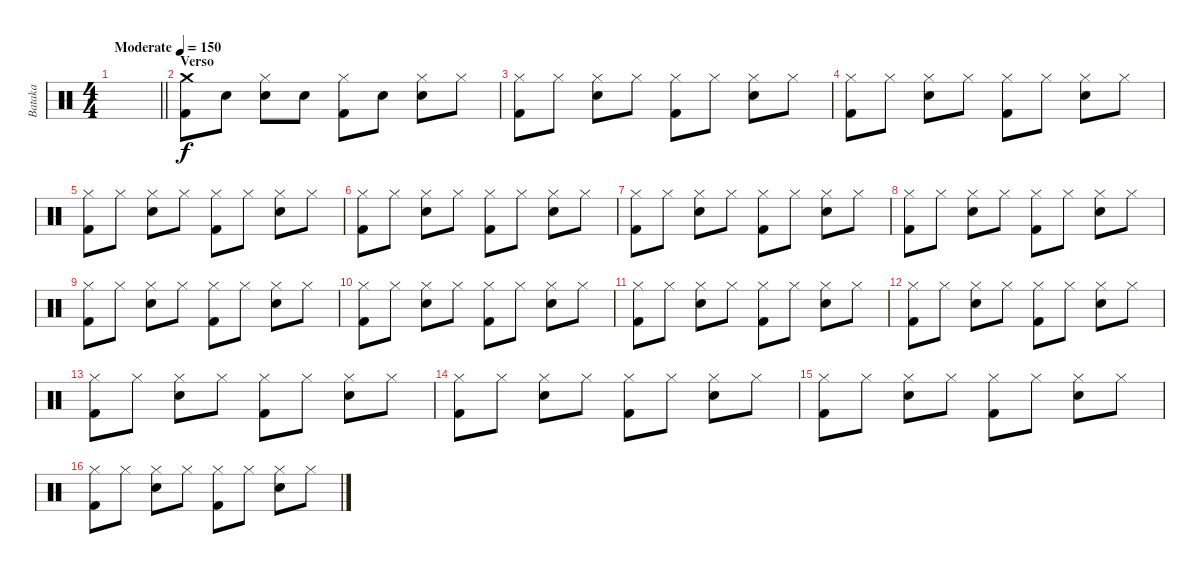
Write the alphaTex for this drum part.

\track ("Bataka" "Bataka") {instrument percussion}
\staff {score}
\articulation defaults
\ts (4 4)
\tempo (150 "Moderate")
\clef neutral
\barLineRight lightlight
\ks c
|
\section ("" "Verso")
("Crash medium (hit)" "Kick (hit) 2").8 "Snare (hit)".8 ("Hi-Hat (closed)" "Snare (hit) 2").8 "Snare (hit)".8 ("Hi-Hat (closed)" "Kick (hit) 2").8 "Snare (hit)".8 ("Hi-Hat (closed)" "Snare (hit) 2").8 "Hi-Hat (closed)".8 |
("Hi-Hat (closed)" "Kick (hit) 2").8 "Hi-Hat (closed)".8 ("Hi-Hat (closed)" "Snare (hit) 2").8 "Hi-Hat (closed)".8 ("Hi-Hat (closed)" "Kick (hit) 2").8 "Hi-Hat (closed)".8 ("Hi-Hat (closed)" "Snare (hit) 2").8 "Hi-Hat (closed)".8 |
("Hi-Hat (closed)" "Kick (hit) 2").8 "Hi-Hat (closed)".8 ("Hi-Hat (closed)" "Snare (hit) 2").8 "Hi-Hat (closed)".8 ("Hi-Hat (closed)" "Kick (hit) 2").8 "Hi-Hat (closed)".8 ("Hi-Hat (closed)" "Snare (hit) 2").8 "Hi-Hat (closed)".8 |
("Hi-Hat (closed)" "Kick (hit) 2").8 "Hi-Hat (closed)".8 ("Hi-Hat (closed)" "Snare (hit) 2").8 "Hi-Hat (closed)".8 ("Hi-Hat (closed)" "Kick (hit) 2").8 "Hi-Hat (closed)".8 ("Hi-Hat (closed)" "Snare (hit) 2").8 "Hi-Hat (closed)".8 |
("Hi-Hat (closed)" "Kick (hit) 2").8 "Hi-Hat (closed)".8 ("Hi-Hat (closed)" "Snare (hit) 2").8 "Hi-Hat (closed)".8 ("Hi-Hat (closed)" "Kick (hit) 2").8 "Hi-Hat (closed)".8 ("Hi-Hat (closed)" "Snare (hit) 2").8 "Hi-Hat (closed)".8 |
("Hi-Hat (closed)" "Kick (hit) 2").8 "Hi-Hat (closed)".8 ("Hi-Hat (closed)" "Snare (hit) 2").8 "Hi-Hat (closed)".8 ("Hi-Hat (closed)" "Kick (hit) 2").8 "Hi-Hat (closed)".8 ("Hi-Hat (closed)" "Snare (hit) 2").8 "Hi-Hat (closed)".8 |
("Hi-Hat (closed)" "Kick (hit) 2").8 "Hi-Hat (closed)".8 ("Hi-Hat (closed)" "Snare (hit) 2").8 "Hi-Hat (closed)".8 ("Hi-Hat (closed)" "Kick (hit) 2").8 "Hi-Hat (closed)".8 ("Hi-Hat (closed)" "Snare (hit) 2").8 "Hi-Hat (closed)".8 |
("Hi-Hat (closed)" "Kick (hit) 2").8 "Hi-Hat (closed)".8 ("Hi-Hat (closed)" "Snare (hit) 2").8 "Hi-Hat (closed)".8 ("Hi-Hat (closed)" "Kick (hit) 2").8 "Hi-Hat (closed)".8 ("Hi-Hat (closed)" "Snare (hit) 2").8 "Hi-Hat (closed)".8 |
("Hi-Hat (closed)" "Kick (hit) 2").8 "Hi-Hat (closed)".8 ("Hi-Hat (closed)" "Snare (hit) 2").8 "Hi-Hat (closed)".8 ("Hi-Hat (closed)" "Kick (hit) 2").8 "Hi-Hat (closed)".8 ("Hi-Hat (closed)" "Snare (hit) 2").8 "Hi-Hat (closed)".8 |
("Hi-Hat (closed)" "Kick (hit) 2").8 "Hi-Hat (closed)".8 ("Hi-Hat (closed)" "Snare (hit) 2").8 "Hi-Hat (closed)".8 ("Hi-Hat (closed)" "Kick (hit) 2").8 "Hi-Hat (closed)".8 ("Hi-Hat (closed)" "Snare (hit) 2").8 "Hi-Hat (closed)".8 |
("Hi-Hat (closed)" "Kick (hit) 2").8 "Hi-Hat (closed)".8 ("Hi-Hat (closed)" "Snare (hit) 2").8 "Hi-Hat (closed)".8 ("Hi-Hat (closed)" "Kick (hit) 2").8 "Hi-Hat (closed)".8 ("Hi-Hat (closed)" "Snare (hit) 2").8 "Hi-Hat (closed)".8 |
("Hi-Hat (closed)" "Kick (hit) 2").8 "Hi-Hat (closed)".8 ("Hi-Hat (closed)" "Snare (hit) 2").8 "Hi-Hat (closed)".8 ("Hi-Hat (closed)" "Kick (hit) 2").8 "Hi-Hat (closed)".8 ("Hi-Hat (closed)" "Snare (hit) 2").8 "Hi-Hat (closed)".8 |
("Hi-Hat (closed)" "Kick (hit) 2").8 "Hi-Hat (closed)".8 ("Hi-Hat (closed)" "Snare (hit) 2").8 "Hi-Hat (closed)".8 ("Hi-Hat (closed)" "Kick (hit) 2").8 "Hi-Hat (closed)".8 ("Hi-Hat (closed)" "Snare (hit) 2").8 "Hi-Hat (closed)".8 |
("Hi-Hat (closed)" "Kick (hit) 2").8 "Hi-Hat (closed)".8 ("Hi-Hat (closed)" "Snare (hit) 2").8 "Hi-Hat (closed)".8 ("Hi-Hat (closed)" "Kick (hit) 2").8 "Hi-Hat (closed)".8 ("Hi-Hat (closed)" "Snare (hit) 2").8 "Hi-Hat (closed)".8 |
("Hi-Hat (closed)" "Kick (hit) 2").8 "Hi-Hat (closed)".8 ("Hi-Hat (closed)" "Snare (hit) 2").8 "Hi-Hat (closed)".8 ("Hi-Hat (closed)" "Kick (hit) 2").8 "Hi-Hat (closed)".8 ("Hi-Hat (closed)" "Snare (hit) 2").8 "Hi-Hat (closed)".8
